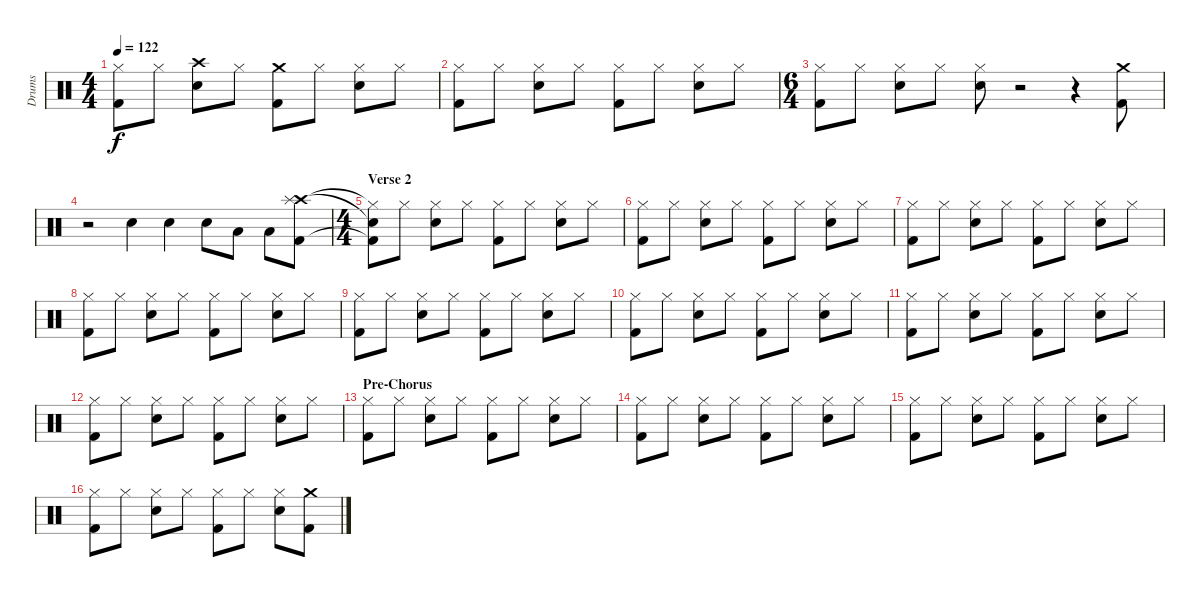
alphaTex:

\track ("Drums" "Drums") {instrument percussion}
\staff {score}
\articulation defaults
\ts (4 4)
\tempo 122
\clef neutral
\ks c
("Hi-Hat (closed)" "Kick (hit) 2").8{dy f} "Hi-Hat (closed)".8 ("Crash high (hit)" "Electric Snare (hit)").8 "Hi-Hat (closed)".8 ("Crash medium (hit)" "Kick (hit) 2").8 "Hi-Hat (closed)".8 ("Hi-Hat (closed)" "Electric Snare (hit)").8 "Hi-Hat (closed)".8 |
("Hi-Hat (closed)" "Kick (hit) 2").8 "Hi-Hat (closed)".8 ("Hi-Hat (closed)" "Electric Snare (hit)").8 "Hi-Hat (closed)".8 ("Hi-Hat (closed)" "Kick (hit) 2").8 "Hi-Hat (closed)".8 ("Hi-Hat (closed)" "Electric Snare (hit)").8 "Hi-Hat (closed)".8 |
\ts (6 4)
("Hi-Hat (closed)" "Kick (hit) 2").8 "Hi-Hat (closed)".8 ("Hi-Hat (closed)" "Electric Snare (hit)").8 "Hi-Hat (closed)".8 ("Hi-Hat (closed)" "Electric Snare (hit)").8 r.2 r.4 ("Crash medium (hit)" "Kick (hit) 2").8 |
r.2 "Electric Snare (hit)".4 "Electric Snare (hit)".4 "Electric Snare (hit)".8 "Low Tom (hit)".8 "Low Tom (hit)".8 ("Crash high (hit)" "Splash (hit)" "Kick (hit) 2").8 |
\ts (4 4)
\section ("" "Verse 2")
("Hi-Hat (closed)"{t} "Snare (hit)"{t} "Kick (hit) 2"{t}).8 "Hi-Hat (closed)".8 ("Hi-Hat (closed)" "Electric Snare (hit)").8 "Hi-Hat (closed)".8 ("Hi-Hat (closed)" "Kick (hit) 2").8 "Hi-Hat (closed)".8 ("Hi-Hat (closed)" "Electric Snare (hit)").8 "Hi-Hat (closed)".8 |
("Hi-Hat (closed)" "Kick (hit) 2").8 "Hi-Hat (closed)".8 ("Hi-Hat (closed)" "Electric Snare (hit)").8 "Hi-Hat (closed)".8 ("Hi-Hat (closed)" "Kick (hit) 2").8 "Hi-Hat (closed)".8 ("Hi-Hat (closed)" "Electric Snare (hit)").8 "Hi-Hat (closed)".8 |
("Hi-Hat (closed)" "Kick (hit) 2").8 "Hi-Hat (closed)".8 ("Hi-Hat (closed)" "Electric Snare (hit)").8 "Hi-Hat (closed)".8 ("Hi-Hat (closed)" "Kick (hit) 2").8 "Hi-Hat (closed)".8 ("Hi-Hat (closed)" "Electric Snare (hit)").8 "Hi-Hat (closed)".8 |
("Hi-Hat (closed)" "Kick (hit) 2").8 "Hi-Hat (closed)".8 ("Hi-Hat (closed)" "Electric Snare (hit)").8 "Hi-Hat (closed)".8 ("Hi-Hat (closed)" "Kick (hit) 2").8 "Hi-Hat (closed)".8 ("Hi-Hat (closed)" "Electric Snare (hit)").8 "Hi-Hat (closed)".8 |
("Hi-Hat (closed)" "Kick (hit) 2").8 "Hi-Hat (closed)".8 ("Hi-Hat (closed)" "Electric Snare (hit)").8 "Hi-Hat (closed)".8 ("Hi-Hat (closed)" "Kick (hit) 2").8 "Hi-Hat (closed)".8 ("Hi-Hat (closed)" "Electric Snare (hit)").8 "Hi-Hat (closed)".8 |
("Hi-Hat (closed)" "Kick (hit) 2").8 "Hi-Hat (closed)".8 ("Hi-Hat (closed)" "Electric Snare (hit)").8 "Hi-Hat (closed)".8 ("Hi-Hat (closed)" "Kick (hit) 2").8 "Hi-Hat (closed)".8 ("Hi-Hat (closed)" "Electric Snare (hit)").8 "Hi-Hat (closed)".8 |
("Hi-Hat (closed)" "Kick (hit) 2").8 "Hi-Hat (closed)".8 ("Hi-Hat (closed)" "Electric Snare (hit)").8 "Hi-Hat (closed)".8 ("Hi-Hat (closed)" "Kick (hit) 2").8 "Hi-Hat (closed)".8 ("Hi-Hat (closed)" "Electric Snare (hit)").8 "Hi-Hat (closed)".8 |
("Hi-Hat (closed)" "Kick (hit) 2").8 "Hi-Hat (closed)".8 ("Hi-Hat (closed)" "Electric Snare (hit)").8 "Hi-Hat (closed)".8 ("Hi-Hat (closed)" "Kick (hit) 2").8 "Hi-Hat (closed)".8 ("Hi-Hat (closed)" "Electric Snare (hit)").8 "Hi-Hat (closed)".8 |
\section ("" "Pre-Chorus")
("Hi-Hat (closed)" "Kick (hit) 2").8 "Hi-Hat (closed)".8 ("Hi-Hat (closed)" "Electric Snare (hit)").8 "Hi-Hat (closed)".8 ("Hi-Hat (closed)" "Kick (hit) 2").8 "Hi-Hat (closed)".8 ("Hi-Hat (closed)" "Electric Snare (hit)").8 "Hi-Hat (closed)".8 |
("Hi-Hat (closed)" "Kick (hit) 2").8 "Hi-Hat (closed)".8 ("Hi-Hat (closed)" "Electric Snare (hit)").8 "Hi-Hat (closed)".8 ("Hi-Hat (closed)" "Kick (hit) 2").8 "Hi-Hat (closed)".8 ("Hi-Hat (closed)" "Electric Snare (hit)").8 "Hi-Hat (closed)".8 |
("Hi-Hat (closed)" "Kick (hit) 2").8 "Hi-Hat (closed)".8 ("Hi-Hat (closed)" "Electric Snare (hit)").8 "Hi-Hat (closed)".8 ("Hi-Hat (closed)" "Kick (hit) 2").8 "Hi-Hat (closed)".8 ("Hi-Hat (closed)" "Electric Snare (hit)").8 "Hi-Hat (closed)".8 |
("Hi-Hat (closed)" "Kick (hit) 2").8 "Hi-Hat (closed)".8 ("Hi-Hat (closed)" "Electric Snare (hit)").8 "Hi-Hat (closed)".8 ("Hi-Hat (closed)" "Kick (hit) 2").8 "Hi-Hat (closed)".8 ("Hi-Hat (closed)" "Electric Snare (hit)").8 ("Crash medium (hit)" "Kick (hit) 2").8
